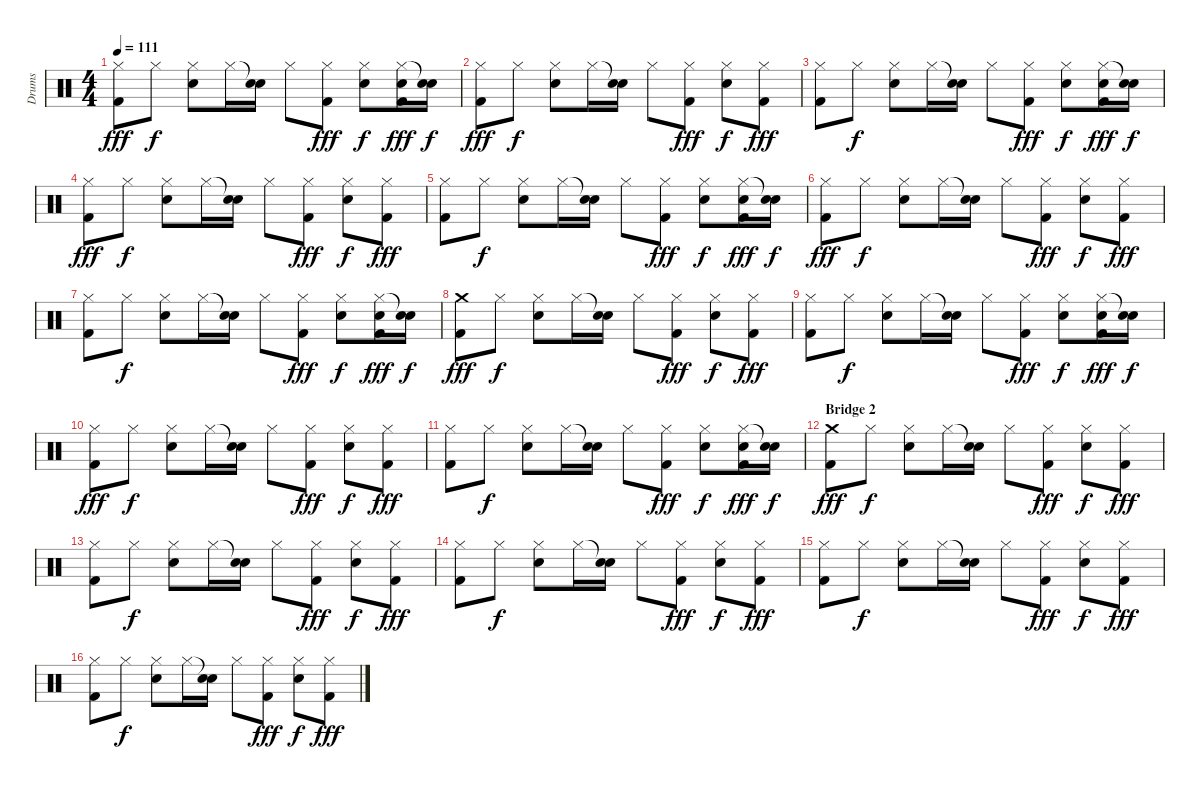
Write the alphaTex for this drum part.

\track ("Drums" "Drums") {instrument percussion}
\staff {score}
\articulation defaults
\ts (4 4)
\tempo 111
\clef neutral
\ks c
("Hi-Hat (closed)" "Kick (hit) 2").8{dy fff} "Hi-Hat (closed)".8{dy f} ("Hi-Hat (closed)" "Snare (hit) 2").8 "Hi-Hat (closed)".16 ("Snare (hit)"{t} "Snare (hit) 2").16 "Hi-Hat (closed)".8 ("Hi-Hat (closed)" "Kick (hit) 2").8{dy fff} ("Hi-Hat (closed)" "Snare (hit) 2").8{dy f} ("Hi-Hat (closed)" "Snare (hit) 2" "Kick (hit) 2").16{dy fff} ("Snare (hit)"{t} "Snare (hit) 2").16{dy f} |
("Hi-Hat (closed)" "Kick (hit) 2").8{dy fff} "Hi-Hat (closed)".8{dy f} ("Hi-Hat (closed)" "Snare (hit) 2").8 "Hi-Hat (closed)".16 ("Snare (hit)"{t} "Snare (hit) 2").16 "Hi-Hat (closed)".8 ("Hi-Hat (closed)" "Kick (hit) 2").8{dy fff} ("Hi-Hat (closed)" "Snare (hit) 2").8{dy f} ("Hi-Hat (closed)" "Kick (hit) 2").8{dy fff} |
("Hi-Hat (closed)" "Kick (hit) 2").8 "Hi-Hat (closed)".8{dy f} ("Hi-Hat (closed)" "Snare (hit) 2").8 "Hi-Hat (closed)".16 ("Snare (hit)"{t} "Snare (hit) 2").16 "Hi-Hat (closed)".8 ("Hi-Hat (closed)" "Kick (hit) 2").8{dy fff} ("Hi-Hat (closed)" "Snare (hit) 2").8{dy f} ("Hi-Hat (closed)" "Snare (hit) 2" "Kick (hit) 2").16{dy fff} ("Snare (hit)"{t} "Snare (hit) 2").16{dy f} |
("Hi-Hat (closed)" "Kick (hit) 2").8{dy fff} "Hi-Hat (closed)".8{dy f} ("Hi-Hat (closed)" "Snare (hit) 2").8 "Hi-Hat (closed)".16 ("Snare (hit)"{t} "Snare (hit) 2").16 "Hi-Hat (closed)".8 ("Hi-Hat (closed)" "Kick (hit) 2").8{dy fff} ("Hi-Hat (closed)" "Snare (hit) 2").8{dy f} ("Hi-Hat (closed)" "Kick (hit) 2").8{dy fff} |
("Hi-Hat (closed)" "Kick (hit) 2").8 "Hi-Hat (closed)".8{dy f} ("Hi-Hat (closed)" "Snare (hit) 2").8 "Hi-Hat (closed)".16 ("Snare (hit)"{t} "Snare (hit) 2").16 "Hi-Hat (closed)".8 ("Hi-Hat (closed)" "Kick (hit) 2").8{dy fff} ("Hi-Hat (closed)" "Snare (hit) 2").8{dy f} ("Hi-Hat (closed)" "Snare (hit) 2" "Kick (hit) 2").16{dy fff} ("Snare (hit)"{t} "Snare (hit) 2").16{dy f} |
("Hi-Hat (closed)" "Kick (hit) 2").8{dy fff} "Hi-Hat (closed)".8{dy f} ("Hi-Hat (closed)" "Snare (hit) 2").8 "Hi-Hat (closed)".16 ("Snare (hit)"{t} "Snare (hit) 2").16 "Hi-Hat (closed)".8 ("Hi-Hat (closed)" "Kick (hit) 2").8{dy fff} ("Hi-Hat (closed)" "Snare (hit) 2").8{dy f} ("Hi-Hat (closed)" "Kick (hit) 2").8{dy fff} |
("Hi-Hat (closed)" "Kick (hit) 2").8 "Hi-Hat (closed)".8{dy f} ("Hi-Hat (closed)" "Snare (hit) 2").8 "Hi-Hat (closed)".16 ("Snare (hit)"{t} "Snare (hit) 2").16 "Hi-Hat (closed)".8 ("Hi-Hat (closed)" "Kick (hit) 2").8{dy fff} ("Hi-Hat (closed)" "Snare (hit) 2").8{dy f} ("Hi-Hat (closed)" "Snare (hit) 2" "Kick (hit) 2").16{dy fff} ("Snare (hit)"{t} "Snare (hit) 2").16{dy f} |
("Crash medium (hit)" "Kick (hit) 2").8{dy fff} "Hi-Hat (closed)".8{dy f} ("Hi-Hat (closed)" "Snare (hit) 2").8 "Hi-Hat (closed)".16 ("Snare (hit)"{t} "Snare (hit) 2").16 "Hi-Hat (closed)".8 ("Hi-Hat (closed)" "Kick (hit) 2").8{dy fff} ("Hi-Hat (closed)" "Snare (hit) 2").8{dy f} ("Hi-Hat (closed)" "Kick (hit) 2").8{dy fff} |
("Hi-Hat (closed)" "Kick (hit) 2").8 "Hi-Hat (closed)".8{dy f} ("Hi-Hat (closed)" "Snare (hit) 2").8 "Hi-Hat (closed)".16 ("Snare (hit)"{t} "Snare (hit) 2").16 "Hi-Hat (closed)".8 ("Hi-Hat (closed)" "Kick (hit) 2").8{dy fff} ("Hi-Hat (closed)" "Snare (hit) 2").8{dy f} ("Hi-Hat (closed)" "Snare (hit) 2" "Kick (hit) 2").16{dy fff} ("Snare (hit)"{t} "Snare (hit) 2").16{dy f} |
("Hi-Hat (closed)" "Kick (hit) 2").8{dy fff} "Hi-Hat (closed)".8{dy f} ("Hi-Hat (closed)" "Snare (hit) 2").8 "Hi-Hat (closed)".16 ("Snare (hit)"{t} "Snare (hit) 2").16 "Hi-Hat (closed)".8 ("Hi-Hat (closed)" "Kick (hit) 2").8{dy fff} ("Hi-Hat (closed)" "Snare (hit) 2").8{dy f} ("Hi-Hat (closed)" "Kick (hit) 2").8{dy fff} |
("Hi-Hat (closed)" "Kick (hit) 2").8 "Hi-Hat (closed)".8{dy f} ("Hi-Hat (closed)" "Snare (hit) 2").8 "Hi-Hat (closed)".16 ("Snare (hit)"{t} "Snare (hit) 2").16 "Hi-Hat (closed)".8 ("Hi-Hat (closed)" "Kick (hit) 2").8{dy fff} ("Hi-Hat (closed)" "Snare (hit) 2").8{dy f} ("Hi-Hat (closed)" "Snare (hit) 2" "Kick (hit) 2").16{dy fff} ("Snare (hit)"{t} "Snare (hit) 2").16{dy f} |
\section ("" "Bridge 2")
("Crash medium (hit)" "Kick (hit) 2").8{dy fff} "Hi-Hat (closed)".8{dy f} ("Hi-Hat (closed)" "Snare (hit) 2").8 "Hi-Hat (closed)".16 ("Snare (hit)"{t} "Snare (hit) 2").16 "Hi-Hat (closed)".8 ("Hi-Hat (closed)" "Kick (hit) 2").8{dy fff} ("Hi-Hat (closed)" "Snare (hit) 2").8{dy f} ("Hi-Hat (closed)" "Kick (hit) 2").8{dy fff} |
("Hi-Hat (closed)" "Kick (hit) 2").8 "Hi-Hat (closed)".8{dy f} ("Hi-Hat (closed)" "Snare (hit) 2").8 "Hi-Hat (closed)".16 ("Snare (hit)"{t} "Snare (hit) 2").16 "Hi-Hat (closed)".8 ("Hi-Hat (closed)" "Kick (hit) 2").8{dy fff} ("Hi-Hat (closed)" "Snare (hit) 2").8{dy f} ("Hi-Hat (closed)" "Kick (hit) 2").8{dy fff} |
("Hi-Hat (closed)" "Kick (hit) 2").8 "Hi-Hat (closed)".8{dy f} ("Hi-Hat (closed)" "Snare (hit) 2").8 "Hi-Hat (closed)".16 ("Snare (hit)"{t} "Snare (hit) 2").16 "Hi-Hat (closed)".8 ("Hi-Hat (closed)" "Kick (hit) 2").8{dy fff} ("Hi-Hat (closed)" "Snare (hit) 2").8{dy f} ("Hi-Hat (closed)" "Kick (hit) 2").8{dy fff} |
("Hi-Hat (closed)" "Kick (hit) 2").8 "Hi-Hat (closed)".8{dy f} ("Hi-Hat (closed)" "Snare (hit) 2").8 "Hi-Hat (closed)".16 ("Snare (hit)"{t} "Snare (hit) 2").16 "Hi-Hat (closed)".8 ("Hi-Hat (closed)" "Kick (hit) 2").8{dy fff} ("Hi-Hat (closed)" "Snare (hit) 2").8{dy f} ("Hi-Hat (closed)" "Kick (hit) 2").8{dy fff} |
("Hi-Hat (closed)" "Kick (hit) 2").8 "Hi-Hat (closed)".8{dy f} ("Hi-Hat (closed)" "Snare (hit) 2").8 "Hi-Hat (closed)".16 ("Snare (hit)"{t} "Snare (hit) 2").16 "Hi-Hat (closed)".8 ("Hi-Hat (closed)" "Kick (hit) 2").8{dy fff} ("Hi-Hat (closed)" "Snare (hit) 2").8{dy f} ("Hi-Hat (closed)" "Kick (hit) 2").8{dy fff}
